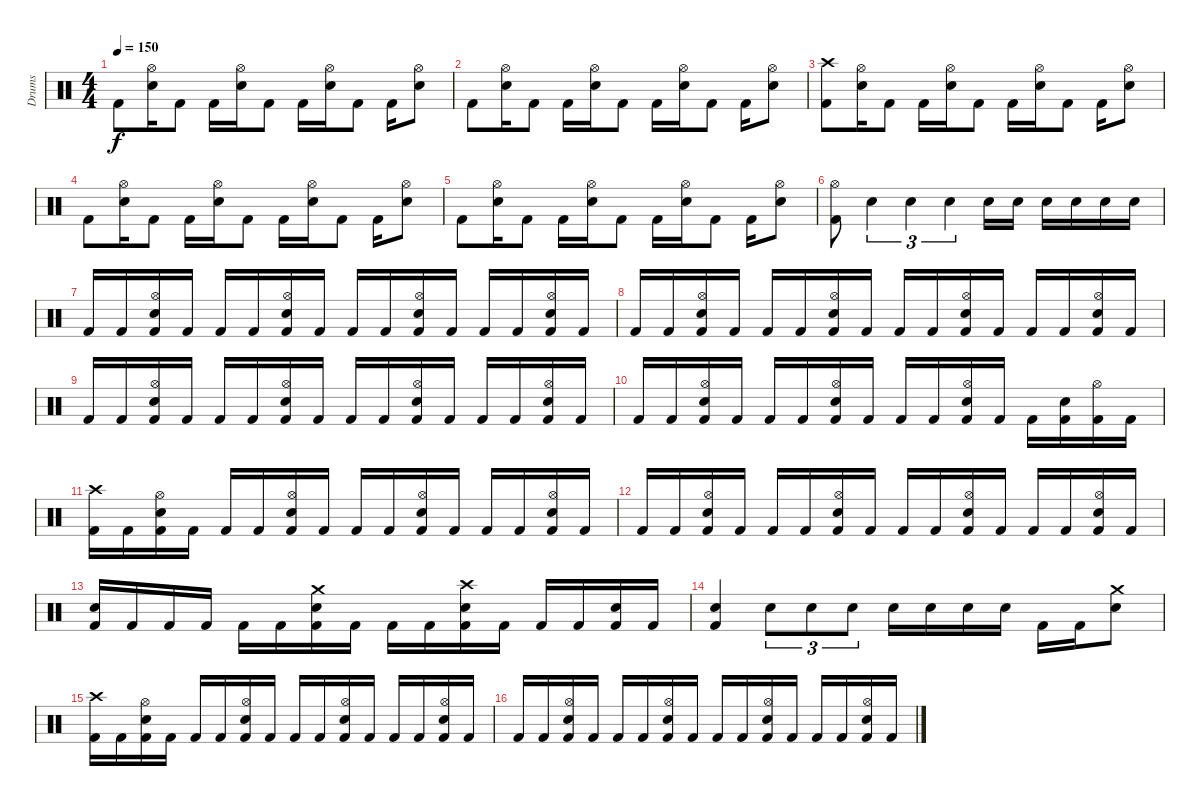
\track ("Drums" "Drums") {instrument percussion}
\staff {score}
\articulation defaults
\ts (4 4)
\tempo 150
\clef neutral
\ks c "Kick (hit) 2".8{dy f}
("Hi-Hat (open)" "Snare (hit) 2").16 "Kick (hit) 2".8 "Kick (hit) 2".16 ("Hi-Hat (open)" "Snare (hit) 2").16 "Kick (hit) 2".8 "Kick (hit) 2".16 ("Hi-Hat (open)" "Snare (hit) 2").16 "Kick (hit) 2".8 "Kick (hit) 2".16 ("Hi-Hat (open)" "Snare (hit) 2").8 |
"Kick (hit) 2".8 ("Hi-Hat (open)" "Snare (hit) 2").16 "Kick (hit) 2".8 "Kick (hit) 2".16 ("Hi-Hat (open)" "Snare (hit) 2").16 "Kick (hit) 2".8 "Kick (hit) 2".16 ("Hi-Hat (open)" "Snare (hit) 2").16 "Kick (hit) 2".8 "Kick (hit) 2".16 ("Hi-Hat (open)" "Snare (hit) 2").8 |
("Crash high (hit)" "Kick (hit) 2").8 ("Hi-Hat (open)" "Snare (hit) 2").16 "Kick (hit) 2".8 "Kick (hit) 2".16 ("Hi-Hat (open)" "Snare (hit) 2").16 "Kick (hit) 2".8 "Kick (hit) 2".16 ("Hi-Hat (open)" "Snare (hit) 2").16 "Kick (hit) 2".8 "Kick (hit) 2".16 ("Hi-Hat (open)" "Snare (hit) 2").8 |
"Kick (hit) 2".8 ("Hi-Hat (open)" "Snare (hit) 2").16 "Kick (hit) 2".8 "Kick (hit) 2".16 ("Hi-Hat (open)" "Snare (hit) 2").16 "Kick (hit) 2".8 "Kick (hit) 2".16 ("Hi-Hat (open)" "Snare (hit) 2").16 "Kick (hit) 2".8 "Kick (hit) 2".16 ("Hi-Hat (open)" "Snare (hit) 2").8 |
"Kick (hit) 2".8 ("Hi-Hat (open)" "Snare (hit) 2").16 "Kick (hit) 2".8 "Kick (hit) 2".16 ("Hi-Hat (open)" "Snare (hit) 2").16 "Kick (hit) 2".8 "Kick (hit) 2".16 ("Hi-Hat (open)" "Snare (hit) 2").16 "Kick (hit) 2".8 "Kick (hit) 2".16 ("Hi-Hat (open)" "Snare (hit) 2").8 |
("Hi-Hat (open)" "Kick (hit) 2").8 "Snare (hit) 2".4{tu (3 2)} "Snare (hit) 2".4{tu (3 2)} "Snare (hit) 2".4{tu (3 2)} "Snare (hit) 2".16 "Snare (hit) 2".16 "Snare (hit) 2".16 "Snare (hit) 2".16 "Snare (hit) 2".16 "Snare (hit) 2".16 |
"Kick (hit) 2".16 "Kick (hit) 2".16 ("Hi-Hat (open)" "Snare (hit) 2" "Kick (hit) 2").16 "Kick (hit) 2".16 "Kick (hit) 2".16 "Kick (hit) 2".16 ("Hi-Hat (open)" "Snare (hit) 2" "Kick (hit) 2").16 "Kick (hit) 2".16 "Kick (hit) 2".16 "Kick (hit) 2".16 ("Hi-Hat (open)" "Snare (hit) 2" "Kick (hit) 2").16 "Kick (hit) 2".16 "Kick (hit) 2".16 "Kick (hit) 2".16 ("Hi-Hat (open)" "Snare (hit) 2" "Kick (hit) 2").16 "Kick (hit) 2".16 |
"Kick (hit) 2".16 "Kick (hit) 2".16 ("Hi-Hat (open)" "Snare (hit) 2" "Kick (hit) 2").16 "Kick (hit) 2".16 "Kick (hit) 2".16 "Kick (hit) 2".16 ("Hi-Hat (open)" "Snare (hit) 2" "Kick (hit) 2").16 "Kick (hit) 2".16 "Kick (hit) 2".16 "Kick (hit) 2".16 ("Hi-Hat (open)" "Snare (hit) 2" "Kick (hit) 2").16 "Kick (hit) 2".16 "Kick (hit) 2".16 "Kick (hit) 2".16 ("Hi-Hat (open)" "Snare (hit) 2" "Kick (hit) 2").16 "Kick (hit) 2".16 |
"Kick (hit) 2".16 "Kick (hit) 2".16 ("Hi-Hat (open)" "Snare (hit) 2" "Kick (hit) 2").16 "Kick (hit) 2".16 "Kick (hit) 2".16 "Kick (hit) 2".16 ("Hi-Hat (open)" "Snare (hit) 2" "Kick (hit) 2").16 "Kick (hit) 2".16 "Kick (hit) 2".16 "Kick (hit) 2".16 ("Hi-Hat (open)" "Snare (hit) 2" "Kick (hit) 2").16 "Kick (hit) 2".16 "Kick (hit) 2".16 "Kick (hit) 2".16 ("Hi-Hat (open)" "Snare (hit) 2" "Kick (hit) 2").16 "Kick (hit) 2".16 |
"Kick (hit) 2".16 "Kick (hit) 2".16 ("Hi-Hat (open)" "Snare (hit) 2" "Kick (hit) 2").16 "Kick (hit) 2".16 "Kick (hit) 2".16 "Kick (hit) 2".16 ("Hi-Hat (open)" "Snare (hit) 2" "Kick (hit) 2").16 "Kick (hit) 2".16 "Kick (hit) 2".16 "Kick (hit) 2".16 ("Hi-Hat (open)" "Snare (hit) 2" "Kick (hit) 2").16 "Kick (hit) 2".16 "Kick (hit) 2".16 ("Snare (hit) 2" "Kick (hit) 2").16 ("Hi-Hat (open)" "Kick (hit) 2").16 "Kick (hit) 2".16 |
("Crash high (hit)" "Kick (hit) 2").16 "Kick (hit) 2".16 ("Hi-Hat (open)" "Snare (hit) 2" "Kick (hit) 2").16 "Kick (hit) 2".16 "Kick (hit) 2".16 "Kick (hit) 2".16 ("Hi-Hat (open)" "Snare (hit) 2" "Kick (hit) 2").16 "Kick (hit) 2".16 "Kick (hit) 2".16 "Kick (hit) 2".16 ("Hi-Hat (open)" "Snare (hit) 2" "Kick (hit) 2").16 "Kick (hit) 2".16 "Kick (hit) 2".16 "Kick (hit) 2".16 ("Hi-Hat (open)" "Snare (hit) 2" "Kick (hit) 2").16 "Kick (hit) 2".16 |
"Kick (hit) 2".16 "Kick (hit) 2".16 ("Hi-Hat (open)" "Snare (hit) 2" "Kick (hit) 2").16 "Kick (hit) 2".16 "Kick (hit) 2".16 "Kick (hit) 2".16 ("Hi-Hat (open)" "Snare (hit) 2" "Kick (hit) 2").16 "Kick (hit) 2".16 "Kick (hit) 2".16 "Kick (hit) 2".16 ("Hi-Hat (open)" "Snare (hit) 2" "Kick (hit) 2").16 "Kick (hit) 2".16 "Kick (hit) 2".16 "Kick (hit) 2".16 ("Hi-Hat (open)" "Snare (hit) 2" "Kick (hit) 2").16 "Kick (hit) 2".16 |
("Snare (hit) 2" "Kick (hit) 2").16 "Kick (hit) 2".16 "Kick (hit) 2".16 "Kick (hit) 2".16 "Kick (hit) 2".16 "Kick (hit) 2".16 ("Crash medium (hit)" "Snare (hit) 2" "Kick (hit) 2").16 "Kick (hit) 2".16 "Kick (hit) 2".16 "Kick (hit) 2".16 ("Crash high (hit)" "Snare (hit) 2" "Kick (hit) 2").16 "Kick (hit) 2".16 "Kick (hit) 2".16 "Kick (hit) 2".16 ("Snare (hit) 2" "Kick (hit) 2").16 "Kick (hit) 2".16 |
("Snare (hit) 2" "Kick (hit) 2").4 "Snare (hit) 2".8{tu (3 2)} "Snare (hit) 2".8{tu (3 2)} "Snare (hit) 2".8{tu (3 2)} "Snare (hit) 2".16 "Snare (hit) 2".16 "Snare (hit) 2".16 "Snare (hit) 2".16 "Kick (hit) 2".16 "Kick (hit) 2".16 ("Crash medium (hit)" "Snare (hit) 2").8 |
("Crash high (hit)" "Kick (hit) 2").16 "Kick (hit) 2".16 ("Hi-Hat (open)" "Snare (hit) 2" "Kick (hit) 2").16 "Kick (hit) 2".16 "Kick (hit) 2".16 "Kick (hit) 2".16 ("Hi-Hat (open)" "Snare (hit) 2" "Kick (hit) 2").16 "Kick (hit) 2".16 "Kick (hit) 2".16 "Kick (hit) 2".16 ("Hi-Hat (open)" "Snare (hit) 2" "Kick (hit) 2").16 "Kick (hit) 2".16 "Kick (hit) 2".16 "Kick (hit) 2".16 ("Hi-Hat (open)" "Snare (hit) 2" "Kick (hit) 2").16 "Kick (hit) 2".16 |
"Kick (hit) 2".16 "Kick (hit) 2".16 ("Hi-Hat (open)" "Snare (hit) 2" "Kick (hit) 2").16 "Kick (hit) 2".16 "Kick (hit) 2".16 "Kick (hit) 2".16 ("Hi-Hat (open)" "Snare (hit) 2" "Kick (hit) 2").16 "Kick (hit) 2".16 "Kick (hit) 2".16 "Kick (hit) 2".16 ("Hi-Hat (open)" "Snare (hit) 2" "Kick (hit) 2").16 "Kick (hit) 2".16 "Kick (hit) 2".16 "Kick (hit) 2".16 ("Hi-Hat (open)" "Snare (hit) 2" "Kick (hit) 2").16 "Kick (hit) 2".16
